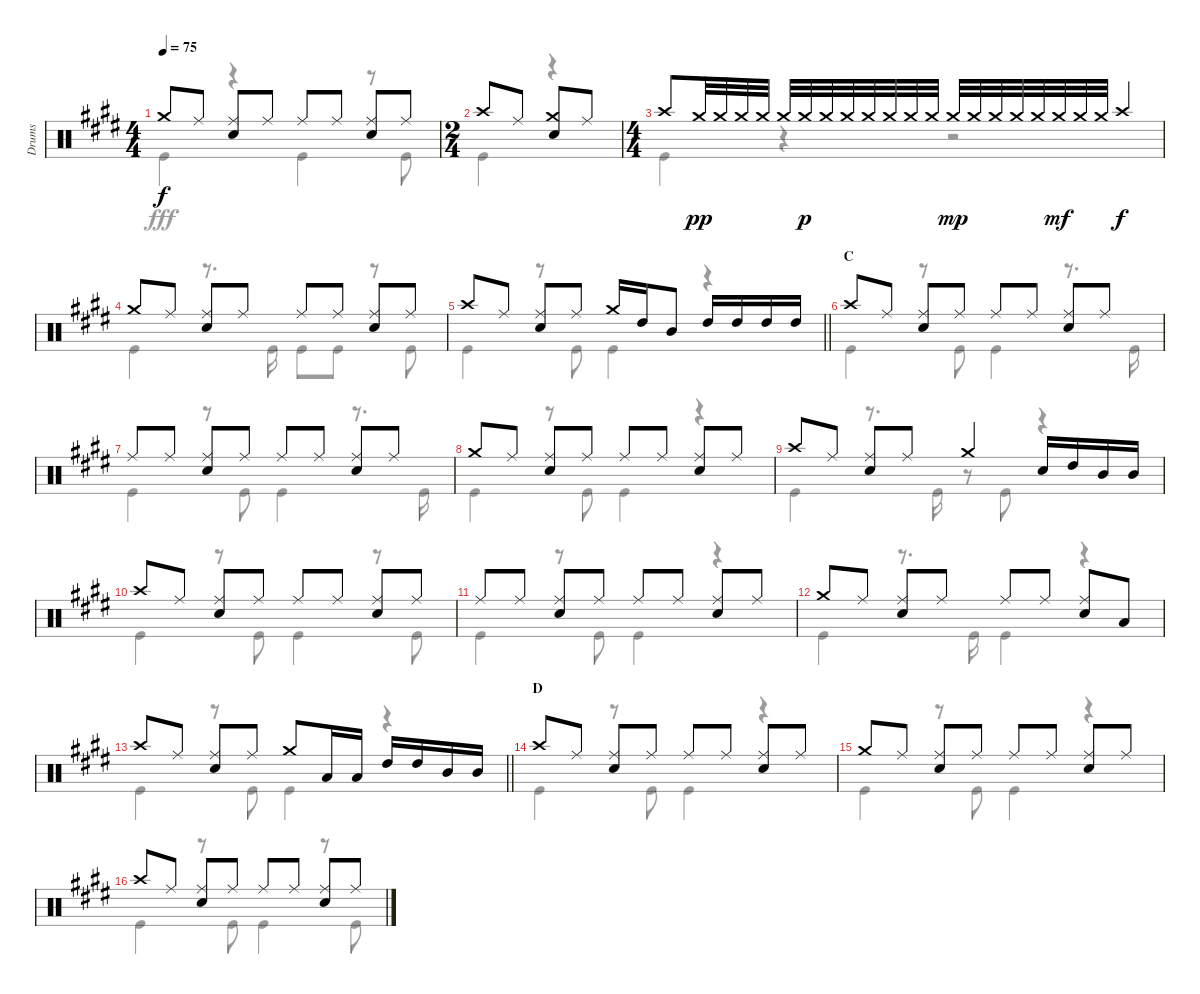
\track ("Drums" "Drums") {instrument percussion}
\staff {score}
\articulation defaults
\voice
\ts (4 4)
\tempo 75
\clef neutral
\ks e "Crash medium (hit)".8{dy f} "Ride (middle)".8
("Ride (middle)" "Snare (hit) 2").8 "Ride (middle)".8 "Ride (middle)".8 "Ride (middle)".8 ("Ride (middle)" "Snare (hit) 2").8 "Ride (middle)".8 |
\ts (2 4)
"Crash high (hit)".8 "Ride (middle)".8 ("Crash medium (hit)" "Snare (hit) 2").8 "Ride (middle)".8 |
\ts (4 4)
"Crash high (hit)".8 "Crash medium (hit)".32{dy pp} "Crash medium (hit)".32 "Crash medium (hit)".32 "Crash medium (hit)".32 "Crash medium (hit)".32 "Crash medium (hit)".32{dy p} "Crash medium (hit)".32 "Crash medium (hit)".32 "Crash medium (hit)".32 "Crash medium (hit)".32 "Crash medium (hit)".32 "Crash medium (hit)".32 "Crash medium (hit)".32{dy mp} "Crash medium (hit)".32 "Crash medium (hit)".32 "Crash medium (hit)".32 "Crash medium (hit)".32 "Crash medium (hit)".32{dy mf} "Crash medium (hit)".32 "Crash medium (hit)".32 "Crash high (hit)".4{dy f} |
"Crash medium (hit)".8 "Ride (middle)".8 ("Ride (middle)" "Snare (hit) 2").8 "Ride (middle)".8 "Ride (middle)".8 "Ride (middle)".8 ("Ride (middle)" "Snare (hit) 2").8 "Ride (middle)".8 |
\barLineRight lightlight "Crash high (hit)".8 "Ride (middle)".8
("Ride (middle)" "Snare (hit) 2").8 "Ride (middle)".8 "Crash medium (hit)".16 "High Tom (hit)".16 "Mid Tom (hit)".8 "High Tom (hit)".16 "High Tom (hit)".16 "High Tom (hit)".16 "High Tom (hit)".16 |
\section ("" "C")
"Crash high (hit)".8 "Ride (middle)".8 ("Ride (middle)" "Snare (hit) 2").8 "Ride (middle)".8 "Ride (middle)".8 "Ride (middle)".8 ("Ride (middle)" "Snare (hit) 2").8 "Ride (middle)".8 |
"Ride (middle)".8 "Ride (middle)".8 ("Ride (middle)" "Snare (hit) 2").8 "Ride (middle)".8 "Ride (middle)".8 "Ride (middle)".8 ("Ride (middle)" "Snare (hit) 2").8 "Ride (middle)".8 |
"Crash medium (hit)".8 "Ride (middle)".8 ("Ride (middle)" "Snare (hit) 2").8 "Ride (middle)".8 "Ride (middle)".8 "Ride (middle)".8 ("Ride (middle)" "Snare (hit) 2").8 "Ride (middle)".8 |
"Crash high (hit)".8 "Ride (middle)".8 ("Ride (middle)" "Snare (hit) 2").8 "Ride (middle)".8 "Crash medium (hit)".4 "Snare (hit) 2".16 "High Tom (hit)".16 "Mid Tom (hit)".16 "Mid Tom (hit)".16 |
"Crash high (hit)".8 "Ride (middle)".8 ("Ride (middle)" "Snare (hit) 2").8 "Ride (middle)".8 "Ride (middle)".8 "Ride (middle)".8 ("Ride (middle)" "Snare (hit) 2").8 "Ride (middle)".8 |
"Ride (middle)".8 "Ride (middle)".8 ("Ride (middle)" "Snare (hit) 2").8 "Ride (middle)".8 "Ride (middle)".8 "Ride (middle)".8 ("Ride (middle)" "Snare (hit) 2").8 "Ride (middle)".8 |
"Crash medium (hit)".8 "Ride (middle)".8 ("Ride (middle)" "Snare (hit) 2").8 "Ride (middle)".8 "Ride (middle)".8 "Ride (middle)".8 ("Ride (middle)" "Snare (hit) 2").8 "Low Tom (hit)".8 |
\barLineRight lightlight "Crash high (hit)".8 "Ride (middle)".8
("Ride (middle)" "Snare (hit) 2").8 "Ride (middle)".8 "Crash medium (hit)".8 "Low Tom (hit)".16 "Low Tom (hit)".16 "High Tom (hit)".16 "High Tom (hit)".16 "Mid Tom (hit)".16 "Mid Tom (hit)".16 |
\section ("" "D")
"Crash high (hit)".8 "Ride (middle)".8 ("Ride (middle)" "Snare (hit) 2").8 "Ride (middle)".8 "Ride (middle)".8 "Ride (middle)".8 ("Ride (middle)" "Snare (hit) 2").8 "Ride (middle)".8 |
"Crash medium (hit)".8 "Ride (middle)".8 ("Ride (middle)" "Snare (hit) 2").8 "Ride (middle)".8 "Ride (middle)".8 "Ride (middle)".8 ("Ride (middle)" "Snare (hit) 2").8 "Ride (middle)".8 |
"Crash high (hit)".8 "Ride (middle)".8 ("Ride (middle)" "Snare (hit) 2").8 "Ride (middle)".8 "Ride (middle)".8 "Ride (middle)".8 ("Ride (middle)" "Snare (hit) 2").8 "Ride (middle)".8
\voice
\clef neutral
\ottava regular
\simile none
\ks e "Kick (hit)".4{dy fff}
r.4 "Kick (hit)".4 r.8 "Kick (hit)".8 |
"Kick (hit)".4 r.4 |
"Kick (hit)".4 r.4 r.2 |
"Kick (hit)".4 r.8{d} "Kick (hit)".16 "Kick (hit)".8 "Kick (hit)".8 r.8 "Kick (hit)".8 |
\barLineRight lightlight "Kick (hit)".4
r.8 "Kick (hit)".8 "Kick (hit)".4 r.4 |
"Kick (hit)".4 r.8 "Kick (hit)".8 "Kick (hit)".4 r.8{d} "Kick (hit)".16 |
"Kick (hit)".4 r.8 "Kick (hit)".8 "Kick (hit)".4 r.8{d} "Kick (hit)".16 |
"Kick (hit)".4 r.8 "Kick (hit)".8 "Kick (hit)".4 r.4 |
"Kick (hit)".4 r.8{d} "Kick (hit)".16 r.8 "Kick (hit)".8 r.4 |
"Kick (hit)".4 r.8 "Kick (hit)".8 "Kick (hit)".4 r.8 "Kick (hit)".8 |
"Kick (hit)".4 r.8 "Kick (hit)".8 "Kick (hit)".4 r.4 |
"Kick (hit)".4 r.8{d} "Kick (hit)".16 "Kick (hit)".4 r.4 |
\barLineRight lightlight "Kick (hit)".4
r.8 "Kick (hit)".8 "Kick (hit)".4 r.4 |
"Kick (hit)".4 r.8 "Kick (hit)".8 "Kick (hit)".4 r.4 |
"Kick (hit)".4 r.8 "Kick (hit)".8 "Kick (hit)".4 r.4 |
"Kick (hit)".4 r.8 "Kick (hit)".8 "Kick (hit)".4 r.8 "Kick (hit)".8
